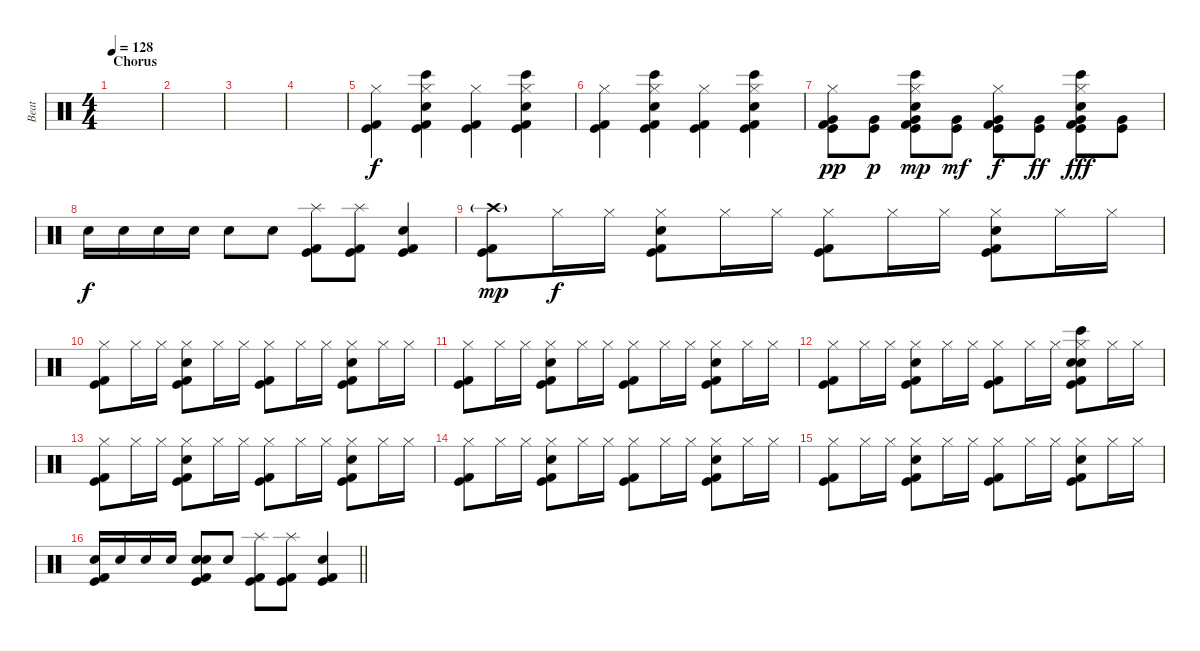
\track ("Beat" "Beat") {instrument percussion}
\staff {score}
\articulation defaults
\ts (4 4)
\section ("" "Chorus")
\tempo 128
\clef neutral
\ks c
|
|
|
|
("Hi-Hat (closed)" "Kick (hit) 2" "Kick (hit)").4 ("Hi-Hat (closed)" "Bongo High (hit)" "Snare (hit) 2" "Kick (hit) 2" "Kick (hit)").4 ("Hi-Hat (closed)" "Kick (hit) 2" "Kick (hit)").4 ("Hi-Hat (closed)" "Bongo High (hit)" "Snare (hit) 2" "Kick (hit) 2" "Kick (hit)").4 |
("Hi-Hat (closed)" "Kick (hit) 2" "Kick (hit)").4 ("Hi-Hat (closed)" "Bongo High (hit)" "Snare (hit) 2" "Kick (hit) 2" "Kick (hit)").4 ("Hi-Hat (closed)" "Kick (hit) 2" "Kick (hit)").4 ("Hi-Hat (closed)" "Bongo High (hit)" "Snare (hit) 2" "Kick (hit) 2" "Kick (hit)").4 |
("Very Low Tom (hit)" "Hi-Hat (closed)" "Kick (hit) 2" "Kick (hit)").8{dy pp} ("Very Low Tom (hit)" "Kick (hit)").8{dy p} ("Very Low Tom (hit)" "Hi-Hat (closed)" "Bongo High (hit)" "Snare (hit) 2" "Kick (hit) 2" "Kick (hit)").8{dy mp} ("Very Low Tom (hit)" "Kick (hit)").8{dy mf} ("Very Low Tom (hit)" "Hi-Hat (closed)" "Kick (hit) 2" "Kick (hit)").8{dy f} ("Very Low Tom (hit)" "Kick (hit)").8{dy ff} ("Very Low Tom (hit)" "Hi-Hat (closed)" "Bongo High (hit)" "Snare (hit) 2" "Kick (hit) 2" "Kick (hit)").8{dy fff} ("Very Low Tom (hit)" "Kick (hit)").8 |
"Electric Snare (hit)".16{dy f} "Electric Snare (hit)".16 "Electric Snare (hit)".16 "Electric Snare (hit)".16 "Electric Snare (hit)".8 "Electric Snare (hit)".8 ("Splash (hit)" "Kick (hit) 2" "Kick (hit)").8 ("Splash (hit)" "Kick (hit) 2" "Kick (hit)").8 ("Snare (hit) 2" "Kick (hit) 2" "Kick (hit)").4 |
("Crash high (hit)"{g} "Kick (hit) 2" "Kick (hit)").8{dy mp} "Hi-Hat (closed)".16{dy f} "Hi-Hat (closed)".16 ("Hi-Hat (closed)" "Hand Clap (hit)" "Kick (hit) 2" "Kick (hit)").8 "Hi-Hat (closed)".16 "Hi-Hat (closed)".16 ("Hi-Hat (closed)" "Kick (hit) 2" "Kick (hit)").8 "Hi-Hat (closed)".16 "Hi-Hat (closed)".16 ("Hi-Hat (closed)" "Hand Clap (hit)" "Kick (hit) 2" "Kick (hit)").8 "Hi-Hat (closed)".16 "Hi-Hat (closed)".16 |
("Hi-Hat (closed)" "Kick (hit) 2" "Kick (hit)").8 "Hi-Hat (closed)".16 "Hi-Hat (closed)".16 ("Hi-Hat (closed)" "Hand Clap (hit)" "Kick (hit) 2" "Kick (hit)").8 "Hi-Hat (closed)".16 "Hi-Hat (closed)".16 ("Hi-Hat (closed)" "Kick (hit) 2" "Kick (hit)").8 "Hi-Hat (closed)".16 "Hi-Hat (closed)".16 ("Hi-Hat (closed)" "Hand Clap (hit)" "Kick (hit) 2" "Kick (hit)").8 "Hi-Hat (closed)".16 "Hi-Hat (closed)".16 |
("Hi-Hat (closed)" "Kick (hit) 2" "Kick (hit)").8 "Hi-Hat (closed)".16 "Hi-Hat (closed)".16 ("Hi-Hat (closed)" "Hand Clap (hit)" "Kick (hit) 2" "Kick (hit)").8 "Hi-Hat (closed)".16 "Hi-Hat (closed)".16 ("Hi-Hat (closed)" "Kick (hit) 2" "Kick (hit)").8 "Hi-Hat (closed)".16 "Hi-Hat (closed)".16 ("Hi-Hat (closed)" "Hand Clap (hit)" "Kick (hit) 2" "Kick (hit)").8 "Hi-Hat (closed)".16 "Hi-Hat (closed)".16 |
("Hi-Hat (closed)" "Kick (hit) 2" "Kick (hit)").8 "Hi-Hat (closed)".16 "Hi-Hat (closed)".16 ("Hi-Hat (closed)" "Hand Clap (hit)" "Kick (hit) 2" "Kick (hit)").8 "Hi-Hat (closed)".16 "Hi-Hat (closed)".16 ("Hi-Hat (closed)" "Kick (hit) 2" "Kick (hit)").8 "Hi-Hat (closed)".16 "Hi-Hat (closed)".16 ("Bongo High (hit)" "Hi-Hat (closed)" "Hand Clap (hit)" "Snare (hit) 2" "Kick (hit) 2" "Kick (hit)").8 "Hi-Hat (closed)".16 "Hi-Hat (closed)".16 |
("Hi-Hat (closed)" "Kick (hit) 2" "Kick (hit)").8 "Hi-Hat (closed)".16 "Hi-Hat (closed)".16 ("Hi-Hat (closed)" "Hand Clap (hit)" "Kick (hit) 2" "Kick (hit)").8 "Hi-Hat (closed)".16 "Hi-Hat (closed)".16 ("Hi-Hat (closed)" "Kick (hit) 2" "Kick (hit)").8 "Hi-Hat (closed)".16 "Hi-Hat (closed)".16 ("Hi-Hat (closed)" "Hand Clap (hit)" "Kick (hit) 2" "Kick (hit)").8 "Hi-Hat (closed)".16 "Hi-Hat (closed)".16 |
("Hi-Hat (closed)" "Kick (hit) 2" "Kick (hit)").8 "Hi-Hat (closed)".16 "Hi-Hat (closed)".16 ("Hi-Hat (closed)" "Hand Clap (hit)" "Kick (hit) 2" "Kick (hit)").8 "Hi-Hat (closed)".16 "Hi-Hat (closed)".16 ("Hi-Hat (closed)" "Kick (hit) 2" "Kick (hit)").8 "Hi-Hat (closed)".16 "Hi-Hat (closed)".16 ("Hi-Hat (closed)" "Hand Clap (hit)" "Kick (hit) 2" "Kick (hit)").8 "Hi-Hat (closed)".16 "Hi-Hat (closed)".16 |
("Hi-Hat (closed)" "Kick (hit) 2" "Kick (hit)").8 "Hi-Hat (closed)".16 "Hi-Hat (closed)".16 ("Hi-Hat (closed)" "Hand Clap (hit)" "Kick (hit) 2" "Kick (hit)").8 "Hi-Hat (closed)".16 "Hi-Hat (closed)".16 ("Hi-Hat (closed)" "Kick (hit) 2" "Kick (hit)").8 "Hi-Hat (closed)".16 "Hi-Hat (closed)".16 ("Hi-Hat (closed)" "Hand Clap (hit)" "Kick (hit) 2" "Kick (hit)").8 "Hi-Hat (closed)".16 "Hi-Hat (closed)".16 |
\barLineRight lightlight
("Electric Snare (hit)" "Kick (hit) 2" "Kick (hit)").16 "Electric Snare (hit)".16 "Electric Snare (hit)".16 "Electric Snare (hit)".16 ("Hand Clap (hit)" "Electric Snare (hit)" "Kick (hit) 2" "Kick (hit)").8 "Electric Snare (hit)".8 ("Splash (hit)" "Kick (hit) 2" "Kick (hit)").8 ("Splash (hit)" "Kick (hit) 2" "Kick (hit)").8 ("Snare (hit) 2" "Kick (hit) 2" "Kick (hit)").4
